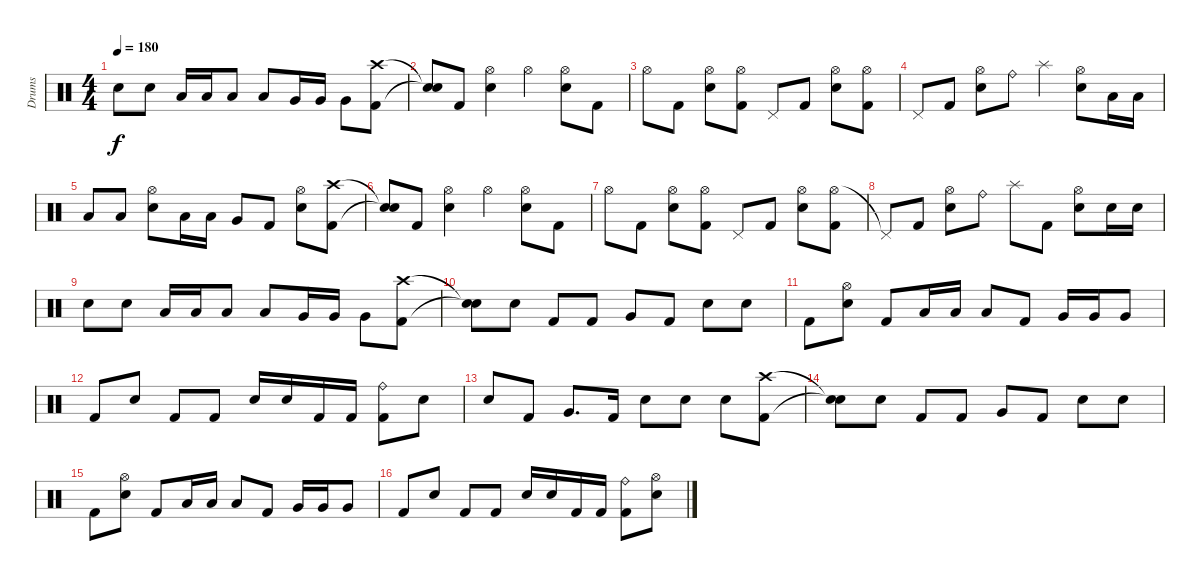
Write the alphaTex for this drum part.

\track ("Drums" "Drums") {instrument percussion}
\staff {score}
\articulation defaults
\ts (4 4)
\tempo 180
\clef neutral
\ks c "Electric Snare (hit)".8{dy f} "Electric Snare (hit)".8 "Low Tom (hit)".16 "Low Tom (hit)".16 "Low Tom (hit)".8 "Low Tom (hit)".8 "Very Low Tom (hit)".16 "Very Low Tom (hit)".16 "Very Low Tom (hit)".8
("Crash high (hit)" "Kick (hit) 2").8 |
("Snare (hit)"{t} "Snare (hit)"{t}).8 "Kick (hit) 2".8 ("Hi-Hat (open)" "Electric Snare (hit)").4 "Hi-Hat (open)".4 ("Hi-Hat (open)" "Electric Snare (hit)").8 "Kick (hit) 2".8 |
"Hi-Hat (open)".8 "Kick (hit) 2".8 ("Hi-Hat (open)" "Electric Snare (hit)").8 ("Hi-Hat (open)" "Kick (hit) 2").8 "Pedal Hi-Hat (hit)".8 "Kick (hit) 2".8 ("Hi-Hat (open)" "Electric Snare (hit)").8 ("Hi-Hat (open)" "Kick (hit) 2").8 |
"Pedal Hi-Hat (hit)".8 "Kick (hit) 2".8 ("Hi-Hat (open)" "Electric Snare (hit)").8 "Ride (bell)".8 "Splash (hit)".4 ("Hi-Hat (open)" "Electric Snare (hit)").8 "Low Tom (hit)".16 "Low Tom (hit)".16 |
"Low Tom (hit)".8 "Low Tom (hit)".8 ("Hi-Hat (open)" "Electric Snare (hit)").8 "Low Tom (hit)".16 "Low Tom (hit)".16 "Very Low Tom (hit)".8 "Kick (hit) 2".8 ("Hi-Hat (open)" "Electric Snare (hit)").8 ("Crash high (hit)" "Kick (hit) 2").8 |
("Snare (hit)"{t} "Snare (hit)"{t}).8 "Kick (hit) 2".8 ("Hi-Hat (open)" "Electric Snare (hit)").4 "Hi-Hat (open)".4 ("Hi-Hat (open)" "Electric Snare (hit)").8 "Kick (hit) 2".8 |
"Hi-Hat (open)".8 "Kick (hit) 2".8 ("Hi-Hat (open)" "Electric Snare (hit)").8 ("Hi-Hat (open)" "Kick (hit) 2").8 "Pedal Hi-Hat (hit)".8 "Kick (hit) 2".8 ("Hi-Hat (open)" "Electric Snare (hit)").8 ("Hi-Hat (open)" "Kick (hit) 2").8 |
"Pedal Hi-Hat (hit)"{t}.8 "Kick (hit) 2".8 ("Hi-Hat (open)" "Electric Snare (hit)").8 "Ride (bell)".8 "Splash (hit)".8 "Kick (hit) 2".8 ("Hi-Hat (open)" "Electric Snare (hit)").8 "Electric Snare (hit)".16 "Electric Snare (hit)".16 |
"Electric Snare (hit)".8 "Electric Snare (hit)".8 "Low Tom (hit)".16 "Low Tom (hit)".16 "Low Tom (hit)".8 "Low Tom (hit)".8 "Very Low Tom (hit)".16 "Very Low Tom (hit)".16 "Very Low Tom (hit)".8 ("Crash high (hit)" "Kick (hit) 2").8 |
("Snare (hit)"{t} "Snare (hit)"{t}).8 "Electric Snare (hit)".8 "Kick (hit) 2".8 "Kick (hit) 2".8 "Very Low Tom (hit)".8 "Kick (hit) 2".8 "Electric Snare (hit)".8 "Electric Snare (hit)".8 |
"Kick (hit) 2".8 ("Hi-Hat (open)" "Electric Snare (hit)").8 "Kick (hit) 2".8 "Low Tom (hit)".16 "Low Tom (hit)".16 "Low Tom (hit)".8 "Kick (hit) 2".8 "Very Low Tom (hit)".16 "Very Low Tom (hit)".16 "Very Low Tom (hit)".8 |
"Kick (hit) 2".8 "Electric Snare (hit)".8 "Kick (hit) 2".8 "Kick (hit) 2".8 "Electric Snare (hit)".16 "Electric Snare (hit)".16 "Kick (hit) 2".16 "Kick (hit) 2".16 ("Ride (bell)" "Kick (hit) 2").8 "Electric Snare (hit)".8 |
"Electric Snare (hit)".8 "Kick (hit) 2".8 "Very Low Tom (hit)".8{d} "Kick (hit) 2".16 "Electric Snare (hit)".8 "Electric Snare (hit)".8 "Electric Snare (hit)".8 ("Crash high (hit)" "Kick (hit) 2").8 |
("Snare (hit)"{t} "Snare (hit)"{t}).8 "Electric Snare (hit)".8 "Kick (hit) 2".8 "Kick (hit) 2".8 "Very Low Tom (hit)".8 "Kick (hit) 2".8 "Electric Snare (hit)".8 "Electric Snare (hit)".8 |
"Kick (hit) 2".8 ("Hi-Hat (open)" "Electric Snare (hit)").8 "Kick (hit) 2".8 "Low Tom (hit)".16 "Low Tom (hit)".16 "Low Tom (hit)".8 "Kick (hit) 2".8 "Very Low Tom (hit)".16 "Very Low Tom (hit)".16 "Very Low Tom (hit)".8 |
"Kick (hit) 2".8 "Electric Snare (hit)".8 "Kick (hit) 2".8 "Kick (hit) 2".8 "Electric Snare (hit)".16 "Electric Snare (hit)".16 "Kick (hit) 2".16 "Kick (hit) 2".16 ("Ride (bell)" "Kick (hit) 2").8 ("Hi-Hat (open)" "Electric Snare (hit)").8
